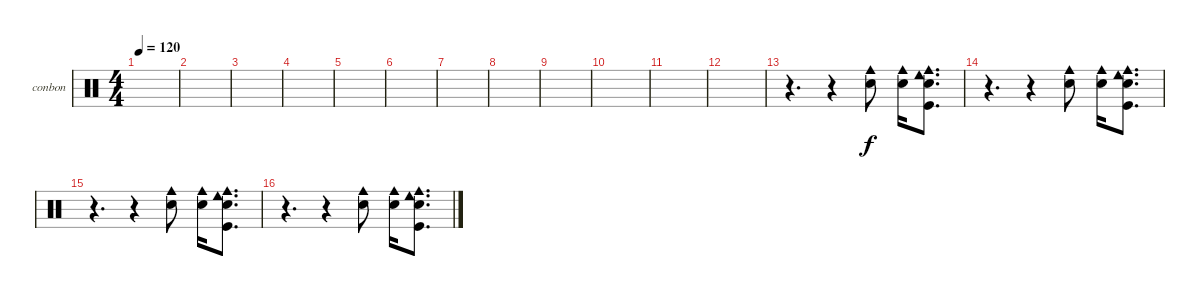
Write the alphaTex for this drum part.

\defaultSystemsLayout 4
\bracketExtendMode groupsimilarinstruments
\firstSystemTrackNameOrientation horizontal
\otherSystemsTrackNameOrientation horizontal
\track ("Bongos N Congas" "conbon") {instrument percussion}
\staff {score}
\articulation defaults
\ts (4 4)
\tempo 120
\clef neutral
\scale
0.333333
\ks c
|
\scale
0.333333 |
\scale
0.333333 |
\scale
0.333333 |
\scale
0.333333 |
\scale
0.333333 |
\scale
0.333333 |
\scale
0.333333 |
\scale
0.333333 |
\scale
0.333333 |
\scale
0.333333 |
\scale
0.333333 |
\scale
0.333333 r.4{d} r.4 ("Cowbell medium (hit)" "Snare (hit) 2").8 ("Cowbell medium (hit)" "Snare (hit) 2").16 ("Kick (hit)" "Cowbell medium (hit)" "Cowbell low (hit)" "Snare (hit) 2").8{d} |
\scale
0.333333 r.4{d} r.4 ("Cowbell medium (hit)" "Snare (hit) 2").8 ("Cowbell medium (hit)" "Snare (hit) 2").16 ("Kick (hit)" "Cowbell medium (hit)" "Cowbell low (hit)" "Snare (hit) 2").8{d} |
\scale
0.333333 r.4{d} r.4 ("Cowbell medium (hit)" "Snare (hit) 2").8 ("Cowbell medium (hit)" "Snare (hit) 2").16 ("Kick (hit)" "Cowbell medium (hit)" "Cowbell low (hit)" "Snare (hit) 2").8{d} |
\scale
0.333333 r.4{d} r.4 ("Cowbell medium (hit)" "Snare (hit) 2").8 ("Cowbell medium (hit)" "Snare (hit) 2").16 ("Kick (hit)" "Cowbell medium (hit)" "Cowbell low (hit)" "Snare (hit) 2").8{d}
